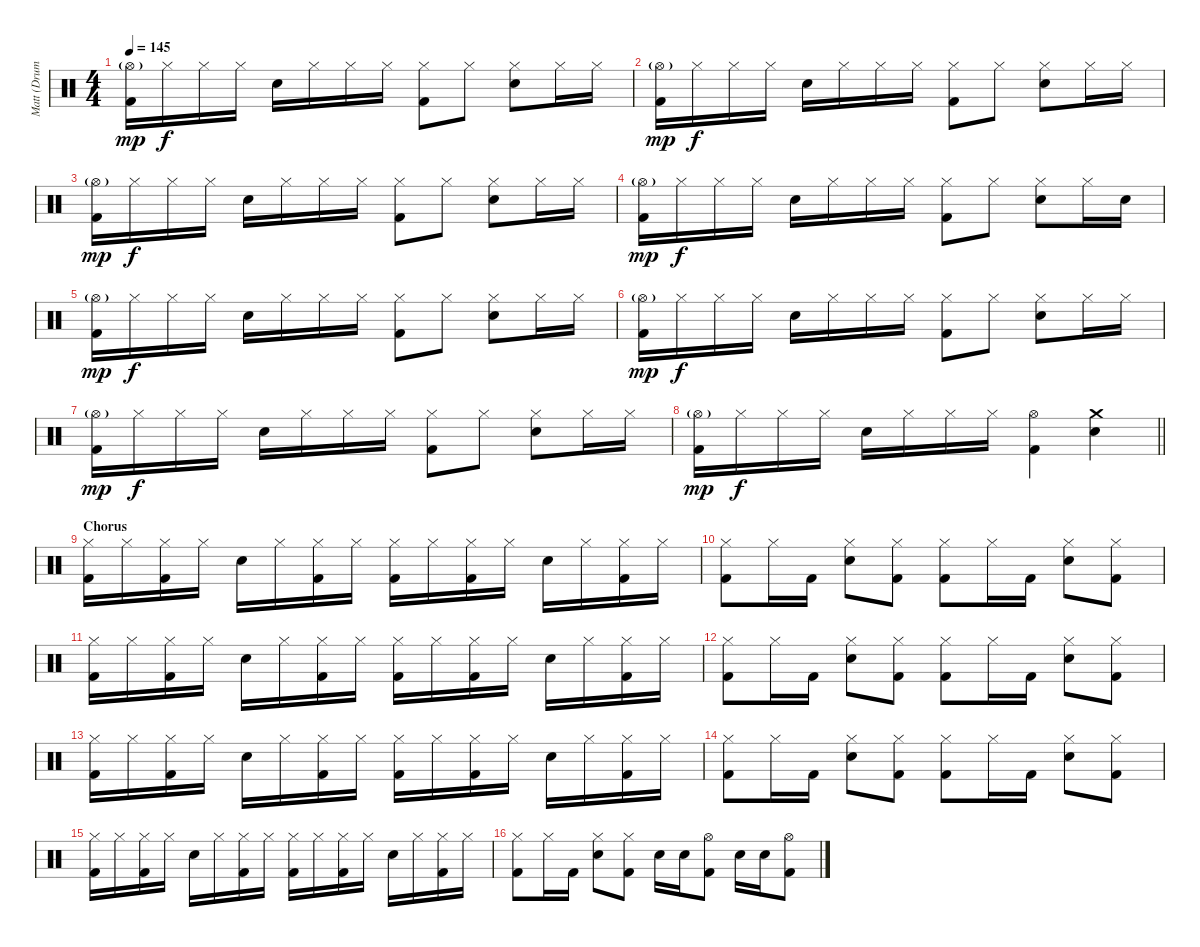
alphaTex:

\track ("Matt (Drums)" "Matt (Drum") {instrument percussion}
\staff {score}
\articulation defaults
\ts (4 4)
\tempo 145
\clef neutral
\ks c
("Hi-Hat (open)"{g} "Kick (hit) 2").16{dy mp} "Hi-Hat (closed)".16{dy f} "Hi-Hat (closed)".16 "Hi-Hat (closed)".16 "Electric Snare (hit)".16 "Hi-Hat (closed)".16 "Hi-Hat (closed)".16 "Hi-Hat (closed)".16 ("Hi-Hat (closed)" "Kick (hit) 2").8 "Hi-Hat (closed)".8 ("Hi-Hat (closed)" "Electric Snare (hit)").8 "Hi-Hat (closed)".16 "Hi-Hat (closed)".16 |
("Hi-Hat (open)"{g} "Kick (hit) 2").16{dy mp} "Hi-Hat (closed)".16{dy f} "Hi-Hat (closed)".16 "Hi-Hat (closed)".16 "Electric Snare (hit)".16 "Hi-Hat (closed)".16 "Hi-Hat (closed)".16 "Hi-Hat (closed)".16 ("Hi-Hat (closed)" "Kick (hit) 2").8 "Hi-Hat (closed)".8 ("Hi-Hat (closed)" "Electric Snare (hit)").8 "Hi-Hat (closed)".16 "Hi-Hat (closed)".16 |
("Hi-Hat (open)"{g} "Kick (hit) 2").16{dy mp} "Hi-Hat (closed)".16{dy f} "Hi-Hat (closed)".16 "Hi-Hat (closed)".16 "Electric Snare (hit)".16 "Hi-Hat (closed)".16 "Hi-Hat (closed)".16 "Hi-Hat (closed)".16 ("Hi-Hat (closed)" "Kick (hit) 2").8 "Hi-Hat (closed)".8 ("Hi-Hat (closed)" "Electric Snare (hit)").8 "Hi-Hat (closed)".16 "Hi-Hat (closed)".16 |
("Hi-Hat (open)"{g} "Kick (hit) 2").16{dy mp} "Hi-Hat (closed)".16{dy f} "Hi-Hat (closed)".16 "Hi-Hat (closed)".16 "Electric Snare (hit)".16 "Hi-Hat (closed)".16 "Hi-Hat (closed)".16 "Hi-Hat (closed)".16 ("Hi-Hat (closed)" "Kick (hit) 2").8 "Hi-Hat (closed)".8 ("Hi-Hat (closed)" "Electric Snare (hit)").8 "Hi-Hat (closed)".16 "Electric Snare (hit)".16 |
("Hi-Hat (open)"{g} "Kick (hit) 2").16{dy mp} "Hi-Hat (closed)".16{dy f} "Hi-Hat (closed)".16 "Hi-Hat (closed)".16 "Electric Snare (hit)".16 "Hi-Hat (closed)".16 "Hi-Hat (closed)".16 "Hi-Hat (closed)".16 ("Hi-Hat (closed)" "Kick (hit) 2").8 "Hi-Hat (closed)".8 ("Hi-Hat (closed)" "Electric Snare (hit)").8 "Hi-Hat (closed)".16 "Hi-Hat (closed)".16 |
("Hi-Hat (open)"{g} "Kick (hit) 2").16{dy mp} "Hi-Hat (closed)".16{dy f} "Hi-Hat (closed)".16 "Hi-Hat (closed)".16 "Electric Snare (hit)".16 "Hi-Hat (closed)".16 "Hi-Hat (closed)".16 "Hi-Hat (closed)".16 ("Hi-Hat (closed)" "Kick (hit) 2").8 "Hi-Hat (closed)".8 ("Hi-Hat (closed)" "Electric Snare (hit)").8 "Hi-Hat (closed)".16 "Hi-Hat (closed)".16 |
("Hi-Hat (open)"{g} "Kick (hit) 2").16{dy mp} "Hi-Hat (closed)".16{dy f} "Hi-Hat (closed)".16 "Hi-Hat (closed)".16 "Electric Snare (hit)".16 "Hi-Hat (closed)".16 "Hi-Hat (closed)".16 "Hi-Hat (closed)".16 ("Hi-Hat (closed)" "Kick (hit) 2").8 "Hi-Hat (closed)".8 ("Hi-Hat (closed)" "Electric Snare (hit)").8 "Hi-Hat (closed)".16 "Hi-Hat (closed)".16 |
\barLineRight lightlight
("Hi-Hat (open)"{g} "Kick (hit) 2").16{dy mp} "Hi-Hat (closed)".16{dy f} "Hi-Hat (closed)".16 "Hi-Hat (closed)".16 "Electric Snare (hit)".16 "Hi-Hat (closed)".16 "Hi-Hat (closed)".16 "Hi-Hat (closed)".16 ("Hi-Hat (open)" "Kick (hit) 2").4 ("Crash medium (hit)" "Electric Snare (hit)").4 |
\section ("" "Chorus")
("Hi-Hat (closed)" "Kick (hit) 2").16 "Hi-Hat (closed)".16 ("Hi-Hat (closed)" "Kick (hit) 2").16 "Hi-Hat (closed)".16 "Electric Snare (hit)".16 "Hi-Hat (closed)".16 ("Hi-Hat (closed)" "Kick (hit) 2").16 "Hi-Hat (closed)".16 ("Hi-Hat (closed)" "Kick (hit) 2").16 "Hi-Hat (closed)".16 ("Hi-Hat (closed)" "Kick (hit) 2").16 "Hi-Hat (closed)".16 "Electric Snare (hit)".16 "Hi-Hat (closed)".16 ("Hi-Hat (closed)" "Kick (hit) 2").16 "Hi-Hat (closed)".16 |
("Hi-Hat (closed)" "Kick (hit) 2").8 "Hi-Hat (closed)".16 "Kick (hit) 2".16 ("Hi-Hat (closed)" "Electric Snare (hit)").8 ("Hi-Hat (closed)" "Kick (hit) 2").8 ("Hi-Hat (closed)" "Kick (hit) 2").8 "Hi-Hat (closed)".16 "Kick (hit) 2".16 ("Hi-Hat (closed)" "Electric Snare (hit)").8 ("Hi-Hat (closed)" "Kick (hit) 2").8 |
("Hi-Hat (closed)" "Kick (hit) 2").16 "Hi-Hat (closed)".16 ("Hi-Hat (closed)" "Kick (hit) 2").16 "Hi-Hat (closed)".16 "Electric Snare (hit)".16 "Hi-Hat (closed)".16 ("Hi-Hat (closed)" "Kick (hit) 2").16 "Hi-Hat (closed)".16 ("Hi-Hat (closed)" "Kick (hit) 2").16 "Hi-Hat (closed)".16 ("Hi-Hat (closed)" "Kick (hit) 2").16 "Hi-Hat (closed)".16 "Electric Snare (hit)".16 "Hi-Hat (closed)".16 ("Hi-Hat (closed)" "Kick (hit) 2").16 "Hi-Hat (closed)".16 |
("Hi-Hat (closed)" "Kick (hit) 2").8 "Hi-Hat (closed)".16 "Kick (hit) 2".16 ("Hi-Hat (closed)" "Electric Snare (hit)").8 ("Hi-Hat (closed)" "Kick (hit) 2").8 ("Hi-Hat (closed)" "Kick (hit) 2").8 "Hi-Hat (closed)".16 "Kick (hit) 2".16 ("Hi-Hat (closed)" "Electric Snare (hit)").8 ("Hi-Hat (closed)" "Kick (hit) 2").8 |
("Hi-Hat (closed)" "Kick (hit) 2").16 "Hi-Hat (closed)".16 ("Hi-Hat (closed)" "Kick (hit) 2").16 "Hi-Hat (closed)".16 "Electric Snare (hit)".16 "Hi-Hat (closed)".16 ("Hi-Hat (closed)" "Kick (hit) 2").16 "Hi-Hat (closed)".16 ("Hi-Hat (closed)" "Kick (hit) 2").16 "Hi-Hat (closed)".16 ("Hi-Hat (closed)" "Kick (hit) 2").16 "Hi-Hat (closed)".16 "Electric Snare (hit)".16 "Hi-Hat (closed)".16 ("Hi-Hat (closed)" "Kick (hit) 2").16 "Hi-Hat (closed)".16 |
("Hi-Hat (closed)" "Kick (hit) 2").8 "Hi-Hat (closed)".16 "Kick (hit) 2".16 ("Hi-Hat (closed)" "Electric Snare (hit)").8 ("Hi-Hat (closed)" "Kick (hit) 2").8 ("Hi-Hat (closed)" "Kick (hit) 2").8 "Hi-Hat (closed)".16 "Kick (hit) 2".16 ("Hi-Hat (closed)" "Electric Snare (hit)").8 ("Hi-Hat (closed)" "Kick (hit) 2").8 |
("Hi-Hat (closed)" "Kick (hit) 2").16 "Hi-Hat (closed)".16 ("Hi-Hat (closed)" "Kick (hit) 2").16 "Hi-Hat (closed)".16 "Electric Snare (hit)".16 "Hi-Hat (closed)".16 ("Hi-Hat (closed)" "Kick (hit) 2").16 "Hi-Hat (closed)".16 ("Hi-Hat (closed)" "Kick (hit) 2").16 "Hi-Hat (closed)".16 ("Hi-Hat (closed)" "Kick (hit) 2").16 "Hi-Hat (closed)".16 "Electric Snare (hit)".16 "Hi-Hat (closed)".16 ("Hi-Hat (closed)" "Kick (hit) 2").16 "Hi-Hat (closed)".16 |
("Hi-Hat (closed)" "Kick (hit) 2").8 "Hi-Hat (closed)".16 "Kick (hit) 2".16 ("Hi-Hat (closed)" "Electric Snare (hit)").8 ("Hi-Hat (closed)" "Kick (hit) 2").8 "Electric Snare (hit)".16 "Electric Snare (hit)".16 ("Hi-Hat (open)" "Kick (hit) 2").8 "Electric Snare (hit)".16 "Electric Snare (hit)".16 ("Hi-Hat (open)" "Kick (hit) 2").8
